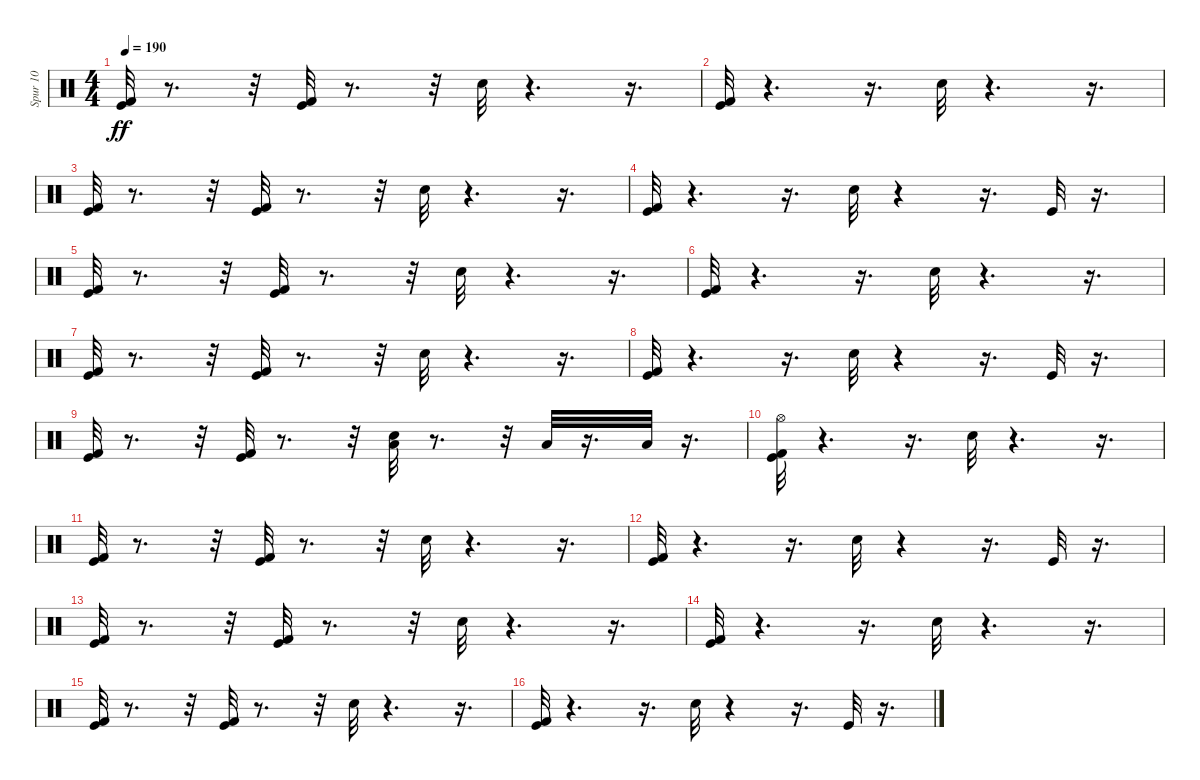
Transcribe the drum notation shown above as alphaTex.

\track ("Spur 10" "Spur 10") {instrument percussion}
\staff {score}
\articulation defaults
\ts (4 4)
\tempo 190
\clef neutral
\ks c
("Kick (hit) 2" "Kick (hit)").32{dy ff} r.8{d} r.32 ("Kick (hit) 2" "Kick (hit)").32 r.8{d} r.32 "Hand Clap (hit)".32 r.4{d} r.16{d} |
("Kick (hit) 2" "Kick (hit)").32 r.4{d} r.16{d} "Hand Clap (hit)".32 r.4{d} r.16{d} |
("Kick (hit) 2" "Kick (hit)").32 r.8{d} r.32 ("Kick (hit) 2" "Kick (hit)").32 r.8{d} r.32 "Hand Clap (hit)".32 r.4{d} r.16{d} |
("Kick (hit) 2" "Kick (hit)").32 r.4{d} r.16{d} "Hand Clap (hit)".32 r.4 r.16{d} "Kick (hit)".32 r.16{d} |
("Kick (hit) 2" "Kick (hit)").32 r.8{d} r.32 ("Kick (hit) 2" "Kick (hit)").32 r.8{d} r.32 "Hand Clap (hit)".32 r.4{d} r.16{d} |
("Kick (hit) 2" "Kick (hit)").32 r.4{d} r.16{d} "Hand Clap (hit)".32 r.4{d} r.16{d} |
("Kick (hit) 2" "Kick (hit)").32 r.8{d} r.32 ("Kick (hit) 2" "Kick (hit)").32 r.8{d} r.32 "Hand Clap (hit)".32 r.4{d} r.16{d} |
("Kick (hit) 2" "Kick (hit)").32 r.4{d} r.16{d} "Hand Clap (hit)".32 r.4 r.16{d} "Kick (hit)".32 r.16{d} |
("Kick (hit) 2" "Kick (hit)").32 r.8{d} r.32 ("Kick (hit) 2" "Kick (hit)").32 r.8{d} r.32 ("Hand Clap (hit)" "Low Floor Tom (hit)").32 r.8{d} r.32 "Low Floor Tom (hit)".32 r.16{d} "Low Tom (hit)".32 r.16{d} |
("Hi-Hat (open)" "Kick (hit) 2" "Kick (hit)").32 r.4{d} r.16{d} "Hand Clap (hit)".32 r.4{d} r.16{d} |
("Kick (hit) 2" "Kick (hit)").32 r.8{d} r.32 ("Kick (hit) 2" "Kick (hit)").32 r.8{d} r.32 "Hand Clap (hit)".32 r.4{d} r.16{d} |
("Kick (hit) 2" "Kick (hit)").32 r.4{d} r.16{d} "Hand Clap (hit)".32 r.4 r.16{d} "Kick (hit)".32 r.16{d} |
("Kick (hit) 2" "Kick (hit)").32 r.8{d} r.32 ("Kick (hit) 2" "Kick (hit)").32 r.8{d} r.32 "Hand Clap (hit)".32 r.4{d} r.16{d} |
("Kick (hit) 2" "Kick (hit)").32 r.4{d} r.16{d} "Hand Clap (hit)".32 r.4{d} r.16{d} |
("Kick (hit) 2" "Kick (hit)").32 r.8{d} r.32 ("Kick (hit) 2" "Kick (hit)").32 r.8{d} r.32 "Hand Clap (hit)".32 r.4{d} r.16{d} |
("Kick (hit) 2" "Kick (hit)").32 r.4{d} r.16{d} "Hand Clap (hit)".32 r.4 r.16{d} "Kick (hit)".32 r.16{d}
